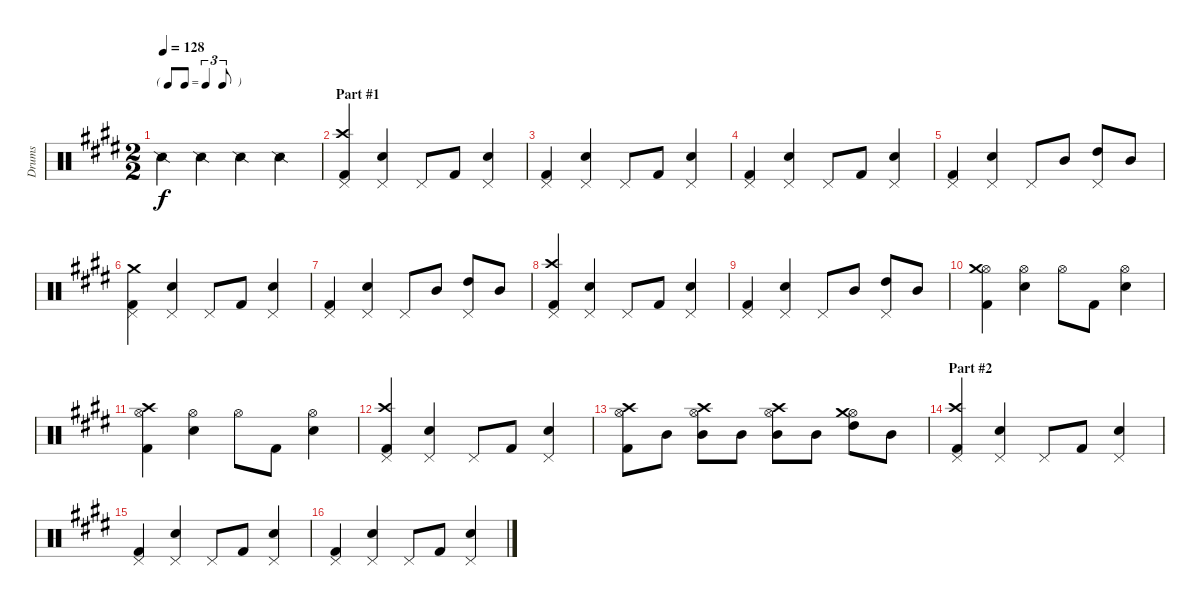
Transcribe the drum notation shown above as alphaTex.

\track ("Drums" "Drums") {instrument percussion}
\staff {score}
\articulation defaults
\ts (2 2)
\tf triplet8th
\tempo 128
\clef neutral
\ks e "Snare (side stick) 2".4{dy f} "Snare (side stick) 2".4 "Snare (side stick) 2".4 "Snare (side stick) 2".4
|
\section ("" "Part #1")
("Pedal Hi-Hat (hit)" "Crash high (hit)" "Kick (hit) 2").4 ("Pedal Hi-Hat (hit)" "Snare (hit) 2").4 "Pedal Hi-Hat (hit)".8 "Kick (hit) 2".8 ("Pedal Hi-Hat (hit)" "Snare (hit) 2").4 |
("Pedal Hi-Hat (hit)" "Kick (hit) 2").4 ("Pedal Hi-Hat (hit)" "Snare (hit) 2").4 "Pedal Hi-Hat (hit)".8 "Kick (hit) 2".8 ("Pedal Hi-Hat (hit)" "Snare (hit) 2").4 |
("Pedal Hi-Hat (hit)" "Kick (hit) 2").4 ("Pedal Hi-Hat (hit)" "Snare (hit) 2").4 "Pedal Hi-Hat (hit)".8 "Kick (hit) 2".8 ("Pedal Hi-Hat (hit)" "Snare (hit) 2").4 |
("Pedal Hi-Hat (hit)" "Kick (hit) 2").4 ("Pedal Hi-Hat (hit)" "Snare (hit) 2").4 "Pedal Hi-Hat (hit)".8 "Mid Tom (hit)".8 ("Pedal Hi-Hat (hit)" "High Tom (hit)").8 "Mid Tom (hit)".8 |
("Pedal Hi-Hat (hit)" "Crash medium (hit)" "Kick (hit) 2").4 ("Pedal Hi-Hat (hit)" "Snare (hit) 2").4 "Pedal Hi-Hat (hit)".8 "Kick (hit) 2".8 ("Pedal Hi-Hat (hit)" "Snare (hit) 2").4 |
("Pedal Hi-Hat (hit)" "Kick (hit) 2").4 ("Pedal Hi-Hat (hit)" "Snare (hit) 2").4 "Pedal Hi-Hat (hit)".8 "Mid Tom (hit)".8 ("Pedal Hi-Hat (hit)" "High Tom (hit)").8 "Mid Tom (hit)".8 |
("Pedal Hi-Hat (hit)" "Crash high (hit)" "Kick (hit) 2").4 ("Pedal Hi-Hat (hit)" "Snare (hit) 2").4 "Pedal Hi-Hat (hit)".8 "Kick (hit) 2".8 ("Pedal Hi-Hat (hit)" "Snare (hit) 2").4 |
("Pedal Hi-Hat (hit)" "Kick (hit) 2").4 ("Pedal Hi-Hat (hit)" "Snare (hit) 2").4 "Pedal Hi-Hat (hit)".8 "Mid Tom (hit)".8 ("Pedal Hi-Hat (hit)" "High Tom (hit)").8 "Mid Tom (hit)".8 |
("Hi-Hat (open)" "Crash medium (hit)" "Kick (hit) 2").4 ("Hi-Hat (open)" "Snare (hit) 2").4 "Hi-Hat (open)".8 "Kick (hit) 2".8 ("Hi-Hat (open)" "Snare (hit) 2").4 |
("Hi-Hat (open)" "Crash high (hit)" "Kick (hit) 2").4 ("Hi-Hat (open)" "Snare (hit) 2").4 "Hi-Hat (open)".8 "Kick (hit) 2".8 ("Hi-Hat (open)" "Snare (hit) 2").4 |
("Pedal Hi-Hat (hit)" "Crash high (hit)" "Kick (hit) 2").4 ("Pedal Hi-Hat (hit)" "Snare (hit) 2").4 "Pedal Hi-Hat (hit)".8 "Kick (hit) 2".8 ("Pedal Hi-Hat (hit)" "Snare (hit) 2").4 |
("Hi-Hat (open)" "Crash high (hit)" "Kick (hit) 2").8 "Mid Tom (hit)".8 ("Hi-Hat (open)" "Crash high (hit)" "Mid Tom (hit)").8 "Mid Tom (hit)".8 ("Hi-Hat (open)" "Crash high (hit)" "Mid Tom (hit)").8 "Mid Tom (hit)".8 ("Hi-Hat (open)" "Crash medium (hit)" "High Tom (hit)").8 "Mid Tom (hit)".8 |
\section ("" "Part #2")
("Pedal Hi-Hat (hit)" "Crash high (hit)" "Kick (hit) 2").4 ("Pedal Hi-Hat (hit)" "Snare (hit) 2").4 "Pedal Hi-Hat (hit)".8 "Kick (hit) 2".8 ("Pedal Hi-Hat (hit)" "Snare (hit) 2").4 |
("Pedal Hi-Hat (hit)" "Kick (hit) 2").4 ("Pedal Hi-Hat (hit)" "Snare (hit) 2").4 "Pedal Hi-Hat (hit)".8 "Kick (hit) 2".8 ("Pedal Hi-Hat (hit)" "Snare (hit) 2").4 |
("Pedal Hi-Hat (hit)" "Kick (hit) 2").4 ("Pedal Hi-Hat (hit)" "Snare (hit) 2").4 "Pedal Hi-Hat (hit)".8 "Kick (hit) 2".8 ("Pedal Hi-Hat (hit)" "Snare (hit) 2").4
